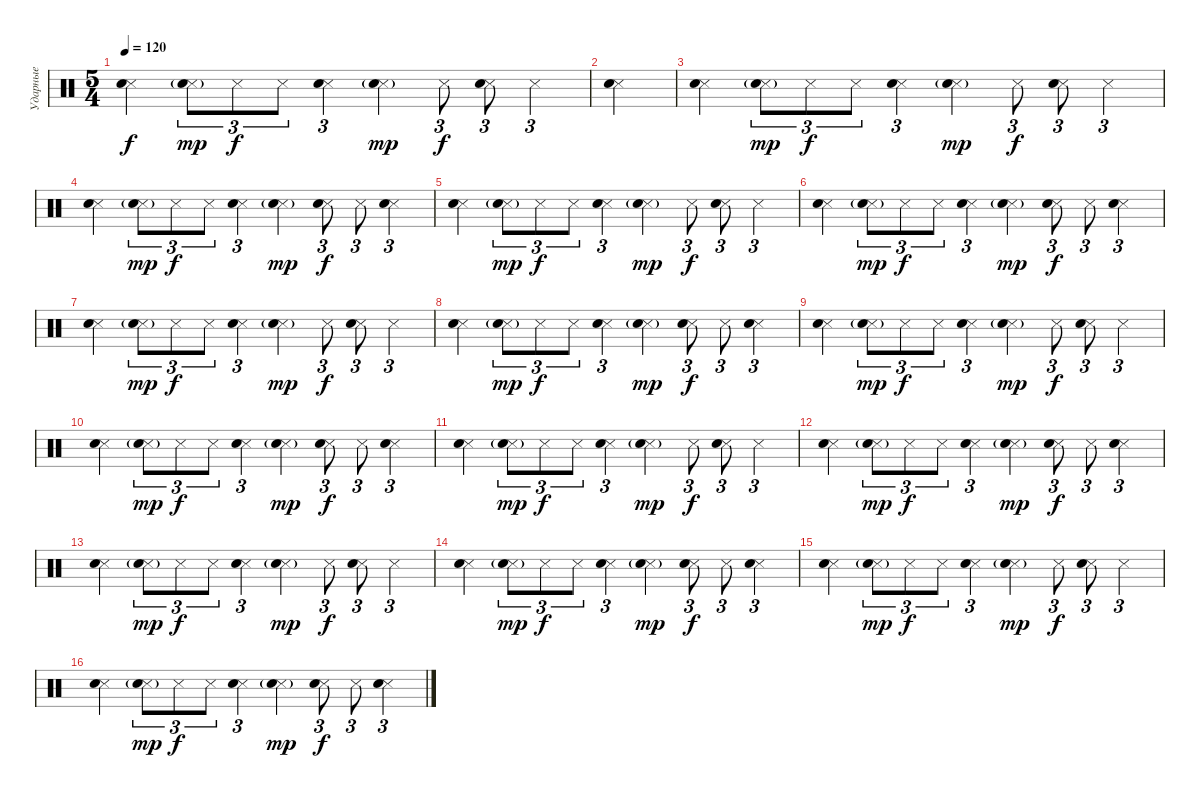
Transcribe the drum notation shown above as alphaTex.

\track ("Ударные" "Ударные") {instrument percussion}
\staff {score}
\articulation defaults
\ts (5 4)
\tempo 120
\clef neutral
\ks c
("Snare (side stick) 3" "Hand Clap (hit)").4{dy f} ("Snare (side stick) 3"{g} "Hand Clap (hit)"{g}).8{tu (3 2) dy mp} "Snare (side stick) 3".8{tu (3 2) dy f} "Snare (side stick) 3".8{tu (3 2)} ("Snare (side stick) 3" "Hand Clap (hit)").4{tu (3 2)} ("Snare (side stick) 3"{g} "Hand Clap (hit)"{g}).4{dy mp} "Snare (side stick) 3".8{tu (3 2) dy f} ("Snare (side stick) 3" "Hand Clap (hit)").8{tu (3 2)} "Snare (side stick) 3".4{tu (3 2)} |
("Snare (side stick) 3" "Hand Clap (hit)").4 |
("Snare (side stick) 3" "Hand Clap (hit)").4 ("Snare (side stick) 3"{g} "Hand Clap (hit)"{g}).8{tu (3 2) dy mp} "Snare (side stick) 3".8{tu (3 2) dy f} "Snare (side stick) 3".8{tu (3 2)} ("Snare (side stick) 3" "Hand Clap (hit)").4{tu (3 2)} ("Snare (side stick) 3"{g} "Hand Clap (hit)"{g}).4{dy mp} "Snare (side stick) 3".8{tu (3 2) dy f} ("Snare (side stick) 3" "Hand Clap (hit)").8{tu (3 2)} "Snare (side stick) 3".4{tu (3 2)} |
("Snare (side stick) 3" "Hand Clap (hit)").4 ("Snare (side stick) 3"{g} "Hand Clap (hit)"{g}).8{tu (3 2) dy mp} "Snare (side stick) 3".8{tu (3 2) dy f} "Snare (side stick) 3".8{tu (3 2)} ("Snare (side stick) 3" "Hand Clap (hit)").4{tu (3 2)} ("Snare (side stick) 3"{g} "Hand Clap (hit)"{g}).4{dy mp} ("Snare (side stick) 3" "Hand Clap (hit)").8{tu (3 2) dy f} "Snare (side stick) 3".8{tu (3 2)} ("Snare (side stick) 3" "Hand Clap (hit)").4{tu (3 2)} |
("Snare (side stick) 3" "Hand Clap (hit)").4 ("Snare (side stick) 3"{g} "Hand Clap (hit)"{g}).8{tu (3 2) dy mp} "Snare (side stick) 3".8{tu (3 2) dy f} "Snare (side stick) 3".8{tu (3 2)} ("Snare (side stick) 3" "Hand Clap (hit)").4{tu (3 2)} ("Snare (side stick) 3"{g} "Hand Clap (hit)"{g}).4{dy mp} "Snare (side stick) 3".8{tu (3 2) dy f} ("Snare (side stick) 3" "Hand Clap (hit)").8{tu (3 2)} "Snare (side stick) 3".4{tu (3 2)} |
("Snare (side stick) 3" "Hand Clap (hit)").4 ("Snare (side stick) 3"{g} "Hand Clap (hit)"{g}).8{tu (3 2) dy mp} "Snare (side stick) 3".8{tu (3 2) dy f} "Snare (side stick) 3".8{tu (3 2)} ("Snare (side stick) 3" "Hand Clap (hit)").4{tu (3 2)} ("Snare (side stick) 3"{g} "Hand Clap (hit)"{g}).4{dy mp} ("Snare (side stick) 3" "Hand Clap (hit)").8{tu (3 2) dy f} "Snare (side stick) 3".8{tu (3 2)} ("Snare (side stick) 3" "Hand Clap (hit)").4{tu (3 2)} |
("Snare (side stick) 3" "Hand Clap (hit)").4 ("Snare (side stick) 3"{g} "Hand Clap (hit)"{g}).8{tu (3 2) dy mp} "Snare (side stick) 3".8{tu (3 2) dy f} "Snare (side stick) 3".8{tu (3 2)} ("Snare (side stick) 3" "Hand Clap (hit)").4{tu (3 2)} ("Snare (side stick) 3"{g} "Hand Clap (hit)"{g}).4{dy mp} "Snare (side stick) 3".8{tu (3 2) dy f} ("Snare (side stick) 3" "Hand Clap (hit)").8{tu (3 2)} "Snare (side stick) 3".4{tu (3 2)} |
("Snare (side stick) 3" "Hand Clap (hit)").4 ("Snare (side stick) 3"{g} "Hand Clap (hit)"{g}).8{tu (3 2) dy mp} "Snare (side stick) 3".8{tu (3 2) dy f} "Snare (side stick) 3".8{tu (3 2)} ("Snare (side stick) 3" "Hand Clap (hit)").4{tu (3 2)} ("Snare (side stick) 3"{g} "Hand Clap (hit)"{g}).4{dy mp} ("Snare (side stick) 3" "Hand Clap (hit)").8{tu (3 2) dy f} "Snare (side stick) 3".8{tu (3 2)} ("Snare (side stick) 3" "Hand Clap (hit)").4{tu (3 2)} |
("Snare (side stick) 3" "Hand Clap (hit)").4 ("Snare (side stick) 3"{g} "Hand Clap (hit)"{g}).8{tu (3 2) dy mp} "Snare (side stick) 3".8{tu (3 2) dy f} "Snare (side stick) 3".8{tu (3 2)} ("Snare (side stick) 3" "Hand Clap (hit)").4{tu (3 2)} ("Snare (side stick) 3"{g} "Hand Clap (hit)"{g}).4{dy mp} "Snare (side stick) 3".8{tu (3 2) dy f} ("Snare (side stick) 3" "Hand Clap (hit)").8{tu (3 2)} "Snare (side stick) 3".4{tu (3 2)} |
("Snare (side stick) 3" "Hand Clap (hit)").4 ("Snare (side stick) 3"{g} "Hand Clap (hit)"{g}).8{tu (3 2) dy mp} "Snare (side stick) 3".8{tu (3 2) dy f} "Snare (side stick) 3".8{tu (3 2)} ("Snare (side stick) 3" "Hand Clap (hit)").4{tu (3 2)} ("Snare (side stick) 3"{g} "Hand Clap (hit)"{g}).4{dy mp} ("Snare (side stick) 3" "Hand Clap (hit)").8{tu (3 2) dy f} "Snare (side stick) 3".8{tu (3 2)} ("Snare (side stick) 3" "Hand Clap (hit)").4{tu (3 2)} |
("Snare (side stick) 3" "Hand Clap (hit)").4 ("Snare (side stick) 3"{g} "Hand Clap (hit)"{g}).8{tu (3 2) dy mp} "Snare (side stick) 3".8{tu (3 2) dy f} "Snare (side stick) 3".8{tu (3 2)} ("Snare (side stick) 3" "Hand Clap (hit)").4{tu (3 2)} ("Snare (side stick) 3"{g} "Hand Clap (hit)"{g}).4{dy mp} "Snare (side stick) 3".8{tu (3 2) dy f} ("Snare (side stick) 3" "Hand Clap (hit)").8{tu (3 2)} "Snare (side stick) 3".4{tu (3 2)} |
("Snare (side stick) 3" "Hand Clap (hit)").4 ("Snare (side stick) 3"{g} "Hand Clap (hit)"{g}).8{tu (3 2) dy mp} "Snare (side stick) 3".8{tu (3 2) dy f} "Snare (side stick) 3".8{tu (3 2)} ("Snare (side stick) 3" "Hand Clap (hit)").4{tu (3 2)} ("Snare (side stick) 3"{g} "Hand Clap (hit)"{g}).4{dy mp} ("Snare (side stick) 3" "Hand Clap (hit)").8{tu (3 2) dy f} "Snare (side stick) 3".8{tu (3 2)} ("Snare (side stick) 3" "Hand Clap (hit)").4{tu (3 2)} |
("Snare (side stick) 3" "Hand Clap (hit)").4 ("Snare (side stick) 3"{g} "Hand Clap (hit)"{g}).8{tu (3 2) dy mp} "Snare (side stick) 3".8{tu (3 2) dy f} "Snare (side stick) 3".8{tu (3 2)} ("Snare (side stick) 3" "Hand Clap (hit)").4{tu (3 2)} ("Snare (side stick) 3"{g} "Hand Clap (hit)"{g}).4{dy mp} "Snare (side stick) 3".8{tu (3 2) dy f} ("Snare (side stick) 3" "Hand Clap (hit)").8{tu (3 2)} "Snare (side stick) 3".4{tu (3 2)} |
("Snare (side stick) 3" "Hand Clap (hit)").4 ("Snare (side stick) 3"{g} "Hand Clap (hit)"{g}).8{tu (3 2) dy mp} "Snare (side stick) 3".8{tu (3 2) dy f} "Snare (side stick) 3".8{tu (3 2)} ("Snare (side stick) 3" "Hand Clap (hit)").4{tu (3 2)} ("Snare (side stick) 3"{g} "Hand Clap (hit)"{g}).4{dy mp} ("Snare (side stick) 3" "Hand Clap (hit)").8{tu (3 2) dy f} "Snare (side stick) 3".8{tu (3 2)} ("Snare (side stick) 3" "Hand Clap (hit)").4{tu (3 2)} |
("Snare (side stick) 3" "Hand Clap (hit)").4 ("Snare (side stick) 3"{g} "Hand Clap (hit)"{g}).8{tu (3 2) dy mp} "Snare (side stick) 3".8{tu (3 2) dy f} "Snare (side stick) 3".8{tu (3 2)} ("Snare (side stick) 3" "Hand Clap (hit)").4{tu (3 2)} ("Snare (side stick) 3"{g} "Hand Clap (hit)"{g}).4{dy mp} "Snare (side stick) 3".8{tu (3 2) dy f} ("Snare (side stick) 3" "Hand Clap (hit)").8{tu (3 2)} "Snare (side stick) 3".4{tu (3 2)} |
("Snare (side stick) 3" "Hand Clap (hit)").4 ("Snare (side stick) 3"{g} "Hand Clap (hit)"{g}).8{tu (3 2) dy mp} "Snare (side stick) 3".8{tu (3 2) dy f} "Snare (side stick) 3".8{tu (3 2)} ("Snare (side stick) 3" "Hand Clap (hit)").4{tu (3 2)} ("Snare (side stick) 3"{g} "Hand Clap (hit)"{g}).4{dy mp} ("Snare (side stick) 3" "Hand Clap (hit)").8{tu (3 2) dy f} "Snare (side stick) 3".8{tu (3 2)} ("Snare (side stick) 3" "Hand Clap (hit)").4{tu (3 2)}
